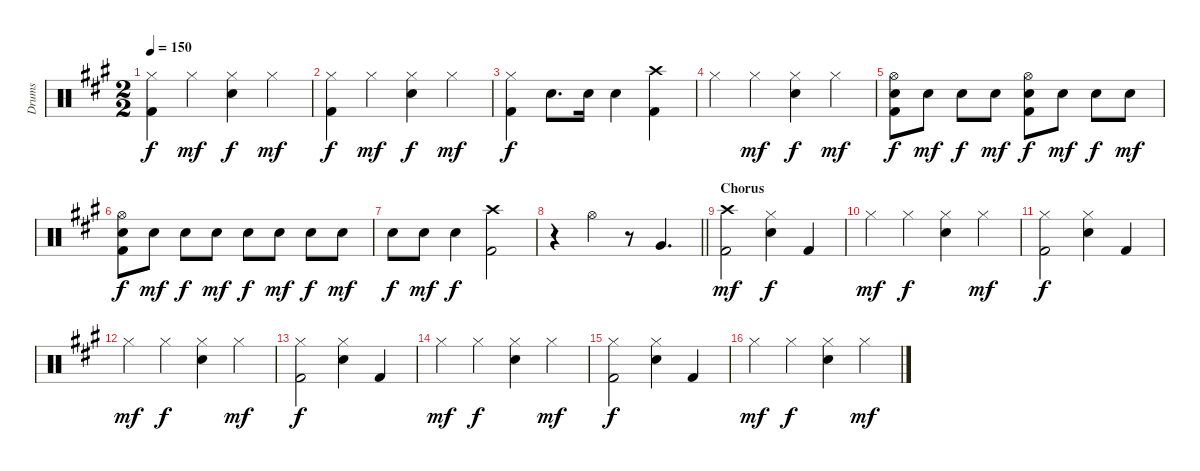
\track ("Drums" "Drums") {instrument percussion}
\staff {score}
\articulation defaults
\ts (2 2)
\tempo 150
\clef neutral
\ks a
("Hi-Hat (closed)" "Kick (hit) 2").4{dy f} "Hi-Hat (closed)".4{dy mf} ("Hi-Hat (closed)" "Electric Snare (hit)").4{dy f} "Hi-Hat (closed)".4{dy mf} |
("Hi-Hat (closed)" "Kick (hit) 2").4{dy f} "Hi-Hat (closed)".4{dy mf} ("Hi-Hat (closed)" "Electric Snare (hit)").4{dy f} "Hi-Hat (closed)".4{dy mf} |
("Hi-Hat (closed)" "Kick (hit) 2").4{dy f} "Electric Snare (hit)".8{d} "Electric Snare (hit)".16 "Electric Snare (hit)".4 ("Crash high (hit)" "Kick (hit) 2").4 |
"Hi-Hat (closed)".4 "Hi-Hat (closed)".4{dy mf} ("Hi-Hat (closed)" "Electric Snare (hit)").4{dy f} "Hi-Hat (closed)".4{dy mf} |
("Hi-Hat (open)" "Electric Snare (hit)" "Kick (hit) 2").8{dy f} "Electric Snare (hit)".8{dy mf} "Electric Snare (hit)".8{dy f} "Electric Snare (hit)".8{dy mf} ("Hi-Hat (open)" "Electric Snare (hit)" "Kick (hit) 2").8{dy f} "Electric Snare (hit)".8{dy mf} "Electric Snare (hit)".8{dy f} "Electric Snare (hit)".8{dy mf} |
("Hi-Hat (open)" "Electric Snare (hit)" "Kick (hit) 2").8{dy f} "Electric Snare (hit)".8{dy mf} "Electric Snare (hit)".8{dy f} "Electric Snare (hit)".8{dy mf} "Electric Snare (hit)".8{dy f} "Electric Snare (hit)".8{dy mf} "Electric Snare (hit)".8{dy f} "Electric Snare (hit)".8{dy mf} |
"Electric Snare (hit)".8{dy f} "Electric Snare (hit)".8{dy mf} "Electric Snare (hit)".4{dy f} ("Crash high (hit)" "Kick (hit) 2").2 |
\barLineRight lightlight
r.4 "Hi-Hat (open)".4 r.8 "Very Low Tom (hit)".4{d} |
\section ("" "Chorus")
("Crash high (hit)" "Kick (hit) 2").2{dy mf} ("Hi-Hat (closed)" "Electric Snare (hit)").4{dy f} "Kick (hit) 2".4 |
"Hi-Hat (closed)".4{dy mf} "Hi-Hat (closed)".4{dy f} ("Hi-Hat (closed)" "Electric Snare (hit)").4 "Hi-Hat (closed)".4{dy mf} |
("Hi-Hat (closed)" "Kick (hit) 2").2{dy f} ("Hi-Hat (closed)" "Electric Snare (hit)").4 "Kick (hit) 2".4 |
"Hi-Hat (closed)".4{dy mf} "Hi-Hat (closed)".4{dy f} ("Hi-Hat (closed)" "Electric Snare (hit)").4 "Hi-Hat (closed)".4{dy mf} |
("Hi-Hat (closed)" "Kick (hit) 2").2{dy f} ("Hi-Hat (closed)" "Electric Snare (hit)").4 "Kick (hit) 2".4 |
"Hi-Hat (closed)".4{dy mf} "Hi-Hat (closed)".4{dy f} ("Hi-Hat (closed)" "Electric Snare (hit)").4 "Hi-Hat (closed)".4{dy mf} |
("Hi-Hat (closed)" "Kick (hit) 2").2{dy f} ("Hi-Hat (closed)" "Electric Snare (hit)").4 "Kick (hit) 2".4 |
"Hi-Hat (closed)".4{dy mf} "Hi-Hat (closed)".4{dy f} ("Hi-Hat (closed)" "Electric Snare (hit)").4 "Hi-Hat (closed)".4{dy mf}
